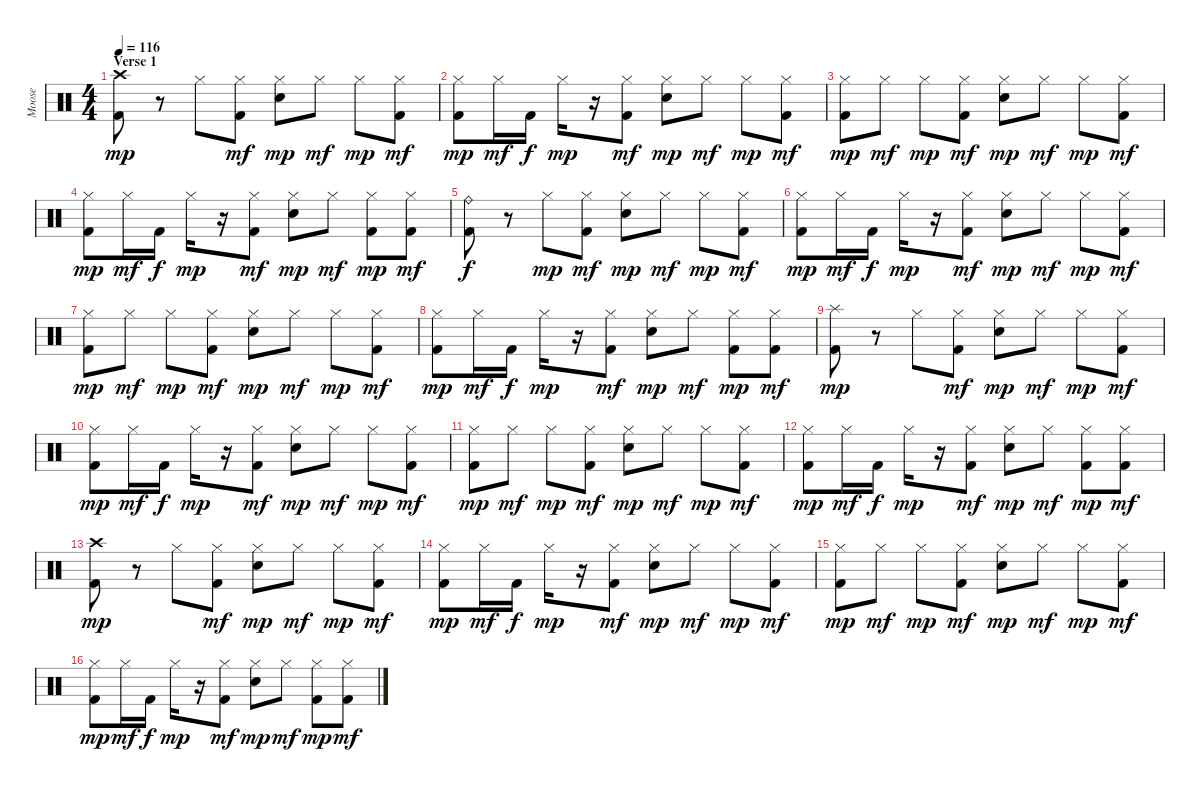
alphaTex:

\track ("Moose" "Moose") {instrument percussion}
\staff {score}
\articulation defaults
\ts (4 4)
\section ("" "Verse 1")
\tempo 116
\clef neutral
\ks c
("Kick (hit) 2" "Crash high (hit)").8{dy mp} r.8 "Hi-Hat (closed)".8 ("Kick (hit) 2" "Hi-Hat (closed)").8{dy mf} ("Snare (hit) 2" "Hi-Hat (closed)").8{dy mp} "Hi-Hat (closed)".8{dy mf} "Hi-Hat (closed)".8{dy mp} ("Kick (hit) 2" "Hi-Hat (closed)").8{dy mf} |
("Kick (hit) 2" "Hi-Hat (closed)").8{dy mp} "Hi-Hat (closed)".16{dy mf} "Kick (hit) 2".16{dy f} "Hi-Hat (closed)".16{dy mp} r.16 ("Kick (hit) 2" "Hi-Hat (closed)").8{dy mf} ("Snare (hit) 2" "Hi-Hat (closed)").8{dy mp} "Hi-Hat (closed)".8{dy mf} "Hi-Hat (closed)".8{dy mp} ("Kick (hit) 2" "Hi-Hat (closed)").8{dy mf} |
("Kick (hit) 2" "Hi-Hat (closed)").8{dy mp} "Hi-Hat (closed)".8{dy mf} "Hi-Hat (closed)".8{dy mp} ("Kick (hit) 2" "Hi-Hat (closed)").8{dy mf} ("Snare (hit) 2" "Hi-Hat (closed)").8{dy mp} "Hi-Hat (closed)".8{dy mf} "Hi-Hat (closed)".8{dy mp} ("Kick (hit) 2" "Hi-Hat (closed)").8{dy mf} |
("Kick (hit) 2" "Hi-Hat (closed)").8{dy mp} "Hi-Hat (closed)".16{dy mf} "Kick (hit) 2".16{dy f} "Hi-Hat (closed)".16{dy mp} r.16 ("Kick (hit) 2" "Hi-Hat (closed)").8{dy mf} ("Snare (hit) 2" "Hi-Hat (closed)").8{dy mp} "Hi-Hat (closed)".8{dy mf} ("Kick (hit) 2" "Hi-Hat (closed)").8{dy mp} ("Kick (hit) 2" "Hi-Hat (closed)").8{dy mf} |
("Kick (hit) 2" "Ride (bell)").8{dy f} r.8 "Hi-Hat (closed)".8{dy mp} ("Kick (hit) 2" "Hi-Hat (closed)").8{dy mf} ("Snare (hit) 2" "Hi-Hat (closed)").8{dy mp} "Hi-Hat (closed)".8{dy mf} "Hi-Hat (closed)".8{dy mp} ("Kick (hit) 2" "Hi-Hat (closed)").8{dy mf} |
("Kick (hit) 2" "Hi-Hat (closed)").8{dy mp} "Hi-Hat (closed)".16{dy mf} "Kick (hit) 2".16{dy f} "Hi-Hat (closed)".16{dy mp} r.16 ("Kick (hit) 2" "Hi-Hat (closed)").8{dy mf} ("Snare (hit) 2" "Hi-Hat (closed)").8{dy mp} "Hi-Hat (closed)".8{dy mf} "Hi-Hat (closed)".8{dy mp} ("Kick (hit) 2" "Hi-Hat (closed)").8{dy mf} |
("Kick (hit) 2" "Hi-Hat (closed)").8{dy mp} "Hi-Hat (closed)".8{dy mf} "Hi-Hat (closed)".8{dy mp} ("Kick (hit) 2" "Hi-Hat (closed)").8{dy mf} ("Snare (hit) 2" "Hi-Hat (closed)").8{dy mp} "Hi-Hat (closed)".8{dy mf} "Hi-Hat (closed)".8{dy mp} ("Kick (hit) 2" "Hi-Hat (closed)").8{dy mf} |
("Kick (hit) 2" "Hi-Hat (closed)").8{dy mp} "Hi-Hat (closed)".16{dy mf} "Kick (hit) 2".16{dy f} "Hi-Hat (closed)".16{dy mp} r.16 ("Kick (hit) 2" "Hi-Hat (closed)").8{dy mf} ("Snare (hit) 2" "Hi-Hat (closed)").8{dy mp} "Hi-Hat (closed)".8{dy mf} ("Kick (hit) 2" "Hi-Hat (closed)").8{dy mp} ("Kick (hit) 2" "Hi-Hat (closed)").8{dy mf} |
("Kick (hit) 2" "Splash (hit)").8{dy mp} r.8 "Hi-Hat (closed)".8 ("Kick (hit) 2" "Hi-Hat (closed)").8{dy mf} ("Snare (hit) 2" "Hi-Hat (closed)").8{dy mp} "Hi-Hat (closed)".8{dy mf} "Hi-Hat (closed)".8{dy mp} ("Kick (hit) 2" "Hi-Hat (closed)").8{dy mf} |
("Kick (hit) 2" "Hi-Hat (closed)").8{dy mp} "Hi-Hat (closed)".16{dy mf} "Kick (hit) 2".16{dy f} "Hi-Hat (closed)".16{dy mp} r.16 ("Kick (hit) 2" "Hi-Hat (closed)").8{dy mf} ("Snare (hit) 2" "Hi-Hat (closed)").8{dy mp} "Hi-Hat (closed)".8{dy mf} "Hi-Hat (closed)".8{dy mp} ("Kick (hit) 2" "Hi-Hat (closed)").8{dy mf} |
("Kick (hit) 2" "Hi-Hat (closed)").8{dy mp} "Hi-Hat (closed)".8{dy mf} "Hi-Hat (closed)".8{dy mp} ("Kick (hit) 2" "Hi-Hat (closed)").8{dy mf} ("Snare (hit) 2" "Hi-Hat (closed)").8{dy mp} "Hi-Hat (closed)".8{dy mf} "Hi-Hat (closed)".8{dy mp} ("Kick (hit) 2" "Hi-Hat (closed)").8{dy mf} |
("Kick (hit) 2" "Hi-Hat (closed)").8{dy mp} "Hi-Hat (closed)".16{dy mf} "Kick (hit) 2".16{dy f} "Hi-Hat (closed)".16{dy mp} r.16 ("Kick (hit) 2" "Hi-Hat (closed)").8{dy mf} ("Snare (hit) 2" "Hi-Hat (closed)").8{dy mp} "Hi-Hat (closed)".8{dy mf} ("Kick (hit) 2" "Hi-Hat (closed)").8{dy mp} ("Kick (hit) 2" "Hi-Hat (closed)").8{dy mf} |
("Kick (hit) 2" "Crash high (hit)").8{dy mp} r.8 "Hi-Hat (closed)".8 ("Kick (hit) 2" "Hi-Hat (closed)").8{dy mf} ("Snare (hit) 2" "Hi-Hat (closed)").8{dy mp} "Hi-Hat (closed)".8{dy mf} "Hi-Hat (closed)".8{dy mp} ("Kick (hit) 2" "Hi-Hat (closed)").8{dy mf} |
("Kick (hit) 2" "Hi-Hat (closed)").8{dy mp} "Hi-Hat (closed)".16{dy mf} "Kick (hit) 2".16{dy f} "Hi-Hat (closed)".16{dy mp} r.16 ("Kick (hit) 2" "Hi-Hat (closed)").8{dy mf} ("Snare (hit) 2" "Hi-Hat (closed)").8{dy mp} "Hi-Hat (closed)".8{dy mf} "Hi-Hat (closed)".8{dy mp} ("Kick (hit) 2" "Hi-Hat (closed)").8{dy mf} |
("Kick (hit) 2" "Hi-Hat (closed)").8{dy mp} "Hi-Hat (closed)".8{dy mf} "Hi-Hat (closed)".8{dy mp} ("Kick (hit) 2" "Hi-Hat (closed)").8{dy mf} ("Snare (hit) 2" "Hi-Hat (closed)").8{dy mp} "Hi-Hat (closed)".8{dy mf} "Hi-Hat (closed)".8{dy mp} ("Kick (hit) 2" "Hi-Hat (closed)").8{dy mf} |
("Kick (hit) 2" "Hi-Hat (closed)").8{dy mp} "Hi-Hat (closed)".16{dy mf} "Kick (hit) 2".16{dy f} "Hi-Hat (closed)".16{dy mp} r.16 ("Kick (hit) 2" "Hi-Hat (closed)").8{dy mf} ("Snare (hit) 2" "Hi-Hat (closed)").8{dy mp} "Hi-Hat (closed)".8{dy mf} ("Kick (hit) 2" "Hi-Hat (closed)").8{dy mp} ("Kick (hit) 2" "Hi-Hat (closed)").8{dy mf}
